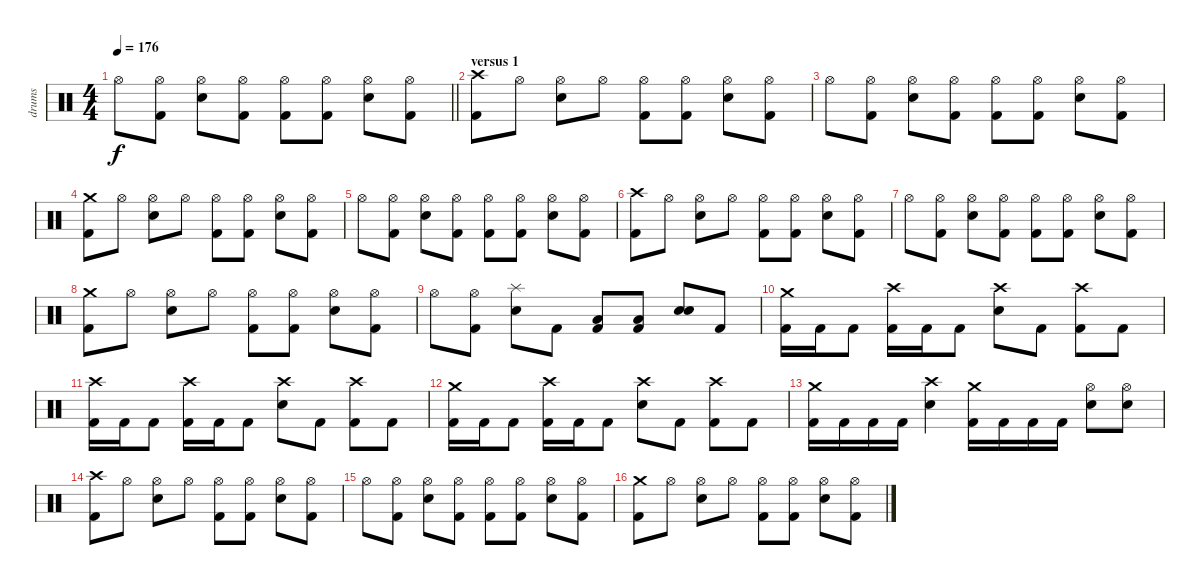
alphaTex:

\track ("drums" "drums") {instrument percussion}
\staff {score}
\articulation defaults
\ts (4 4)
\tempo 176
\clef neutral
\barLineRight lightlight
\ks c "Hi-Hat (open)".8{dy f}
("Hi-Hat (open)" "Kick (hit) 2").8 ("Hi-Hat (open)" "Snare (hit) 2").8 ("Hi-Hat (open)" "Kick (hit) 2").8 ("Hi-Hat (open)" "Kick (hit) 2").8 ("Hi-Hat (open)" "Kick (hit) 2").8 ("Hi-Hat (open)" "Snare (hit) 2").8 ("Hi-Hat (open)" "Kick (hit) 2").8 |
\section ("" "versus 1")
("Crash high (hit)" "Kick (hit) 2").8 "Hi-Hat (open)".8 ("Hi-Hat (open)" "Snare (hit) 2").8 "Hi-Hat (open)".8 ("Hi-Hat (open)" "Kick (hit) 2").8 ("Hi-Hat (open)" "Kick (hit) 2").8 ("Hi-Hat (open)" "Snare (hit) 2").8 ("Hi-Hat (open)" "Kick (hit) 2").8 |
"Hi-Hat (open)".8 ("Hi-Hat (open)" "Kick (hit) 2").8 ("Hi-Hat (open)" "Snare (hit) 2").8 ("Hi-Hat (open)" "Kick (hit) 2").8 ("Hi-Hat (open)" "Kick (hit) 2").8 ("Hi-Hat (open)" "Kick (hit) 2").8 ("Hi-Hat (open)" "Snare (hit) 2").8 ("Hi-Hat (open)" "Kick (hit) 2").8 |
("Crash medium (hit)" "Kick (hit) 2").8 "Hi-Hat (open)".8 ("Hi-Hat (open)" "Snare (hit) 2").8 "Hi-Hat (open)".8 ("Hi-Hat (open)" "Kick (hit) 2").8 ("Hi-Hat (open)" "Kick (hit) 2").8 ("Hi-Hat (open)" "Snare (hit) 2").8 ("Hi-Hat (open)" "Kick (hit) 2").8 |
"Hi-Hat (open)".8 ("Hi-Hat (open)" "Kick (hit) 2").8 ("Hi-Hat (open)" "Snare (hit) 2").8 ("Hi-Hat (open)" "Kick (hit) 2").8 ("Hi-Hat (open)" "Kick (hit) 2").8 ("Hi-Hat (open)" "Kick (hit) 2").8 ("Hi-Hat (open)" "Snare (hit) 2").8 ("Hi-Hat (open)" "Kick (hit) 2").8 |
("Crash high (hit)" "Kick (hit) 2").8 "Hi-Hat (open)".8 ("Hi-Hat (open)" "Snare (hit) 2").8 "Hi-Hat (open)".8 ("Hi-Hat (open)" "Kick (hit) 2").8 ("Hi-Hat (open)" "Kick (hit) 2").8 ("Hi-Hat (open)" "Snare (hit) 2").8 ("Hi-Hat (open)" "Kick (hit) 2").8 |
"Hi-Hat (open)".8 ("Hi-Hat (open)" "Kick (hit) 2").8 ("Hi-Hat (open)" "Snare (hit) 2").8 ("Hi-Hat (open)" "Kick (hit) 2").8 ("Hi-Hat (open)" "Kick (hit) 2").8 ("Hi-Hat (open)" "Kick (hit) 2").8 ("Hi-Hat (open)" "Snare (hit) 2").8 ("Hi-Hat (open)" "Kick (hit) 2").8 |
("Crash medium (hit)" "Kick (hit) 2").8 "Hi-Hat (open)".8 ("Hi-Hat (open)" "Snare (hit) 2").8 "Hi-Hat (open)".8 ("Hi-Hat (open)" "Kick (hit) 2").8 ("Hi-Hat (open)" "Kick (hit) 2").8 ("Hi-Hat (open)" "Snare (hit) 2").8 ("Hi-Hat (open)" "Kick (hit) 2").8 |
"Hi-Hat (open)".8 ("Hi-Hat (open)" "Kick (hit) 2").8 ("Splash (hit)" "Snare (hit) 2").8 "Kick (hit) 2".8 ("Low Floor Tom (hit)" "Kick (hit) 2").8 ("Low Floor Tom (hit)" "Kick (hit) 2").8 ("Snare (hit) 2" "Snare (hit) 2").8 "Kick (hit) 2".8 |
("Crash medium (hit)" "Kick (hit) 2").16 "Kick (hit) 2".16 "Kick (hit) 2".8 ("Crash high (hit)" "Kick (hit) 2").16 "Kick (hit) 2".16 "Kick (hit) 2".8 ("Crash high (hit)" "Snare (hit) 2").8 "Kick (hit) 2".8 ("Crash high (hit)" "Kick (hit) 2").8 "Kick (hit) 2".8 |
("Crash high (hit)" "Kick (hit) 2").16 "Kick (hit) 2".16 "Kick (hit) 2".8 ("Crash high (hit)" "Kick (hit) 2").16 "Kick (hit) 2".16 "Kick (hit) 2".8 ("Crash high (hit)" "Snare (hit) 2").8 "Kick (hit) 2".8 ("Crash high (hit)" "Kick (hit) 2").8 "Kick (hit) 2".8 |
("Crash medium (hit)" "Kick (hit) 2").16 "Kick (hit) 2".16 "Kick (hit) 2".8 ("Crash high (hit)" "Kick (hit) 2").16 "Kick (hit) 2".16 "Kick (hit) 2".8 ("Crash high (hit)" "Snare (hit) 2").8 "Kick (hit) 2".8 ("Crash high (hit)" "Kick (hit) 2").8 "Kick (hit) 2".8 |
("Crash medium (hit)" "Kick (hit) 2").16 "Kick (hit) 2".16 "Kick (hit) 2".16 "Kick (hit) 2".16 ("Crash high (hit)" "Snare (hit) 2").4 ("Crash medium (hit)" "Kick (hit) 2").16 "Kick (hit) 2".16 "Kick (hit) 2".16 "Kick (hit) 2".16 ("Hi-Hat (open)" "Snare (hit) 2").8 ("Hi-Hat (open)" "Snare (hit) 2").8 |
("Crash high (hit)" "Kick (hit) 2").8 "Hi-Hat (open)".8 ("Hi-Hat (open)" "Snare (hit) 2").8 "Hi-Hat (open)".8 ("Hi-Hat (open)" "Kick (hit) 2").8 ("Hi-Hat (open)" "Kick (hit) 2").8 ("Hi-Hat (open)" "Snare (hit) 2").8 ("Hi-Hat (open)" "Kick (hit) 2").8 |
"Hi-Hat (open)".8 ("Hi-Hat (open)" "Kick (hit) 2").8 ("Hi-Hat (open)" "Snare (hit) 2").8 ("Hi-Hat (open)" "Kick (hit) 2").8 ("Hi-Hat (open)" "Kick (hit) 2").8 ("Hi-Hat (open)" "Kick (hit) 2").8 ("Hi-Hat (open)" "Snare (hit) 2").8 ("Hi-Hat (open)" "Kick (hit) 2").8 |
("Crash medium (hit)" "Kick (hit) 2").8 "Hi-Hat (open)".8 ("Hi-Hat (open)" "Snare (hit) 2").8 "Hi-Hat (open)".8 ("Hi-Hat (open)" "Kick (hit) 2").8 ("Hi-Hat (open)" "Kick (hit) 2").8 ("Hi-Hat (open)" "Snare (hit) 2").8 ("Hi-Hat (open)" "Kick (hit) 2").8
